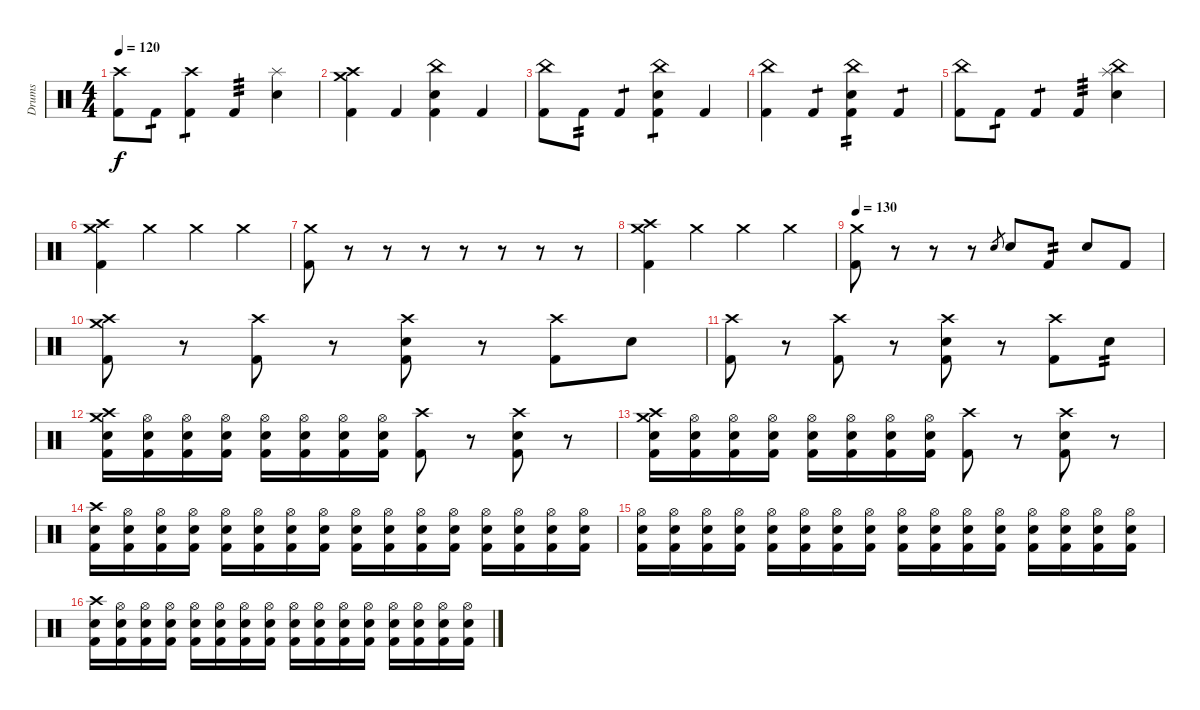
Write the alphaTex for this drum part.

\track ("Drums" "Drums") {instrument percussion}
\staff {score}
\articulation defaults
\ts (4 4)
\tempo 120
\clef neutral
\ks c
("Crash high (hit)" "Kick (hit) 2").8{dy f} "Kick (hit) 2".8{tp 1} ("Crash high (hit)" "Kick (hit) 2").4{tp 1} "Kick (hit) 2".4{tp 3} ("Splash (hit)" "Electric Snare (hit)").4 |
("Crash medium (hit)" "Crash high (hit)" "Kick (hit) 2").4 "Kick (hit) 2".4 ("China (hit)" "Electric Snare (hit)" "Kick (hit) 2").4 "Kick (hit) 2".4 |
("China (hit)" "Kick (hit) 2").8 "Kick (hit) 2".8{tp 2} "Kick (hit) 2".4{tp 1} ("China (hit)" "Electric Snare (hit)" "Kick (hit) 2").4{tp 1} "Kick (hit) 2".4 |
("China (hit)" "Kick (hit) 2").4 "Kick (hit) 2".4{tp 1} ("China (hit)" "Electric Snare (hit)" "Kick (hit) 2").4{tp 2} "Kick (hit) 2".4{tp 1} |
("China (hit)" "Kick (hit) 2").8 "Kick (hit) 2".8{tp 1} "Kick (hit) 2".4{tp 1} "Kick (hit) 2".4{tp 3} ("Splash (hit)" "China (hit)" "Electric Snare (hit)").4 |
("Crash medium (hit)" "Crash high (hit)" "Kick (hit) 2").4 "Crash medium (hit)".4 "Crash medium (hit)".4 "Crash medium (hit)".4 |
("Crash medium (hit)" "Kick (hit) 2").8 r.8{volume 0} r.8 r.8 r.8 r.8 r.8 r.8 |
("Crash medium (hit)" "Crash high (hit)" "Kick (hit) 2").4{volume 13} "Crash medium (hit)".4 "Crash medium (hit)".4 "Crash medium (hit)".4 |
\tempo 130
("Crash medium (hit)" "Kick (hit) 2").8 r.8{volume 0} r.8 r.8 "Electric Snare (hit)".8{gr} "Electric Snare (hit)".8{volume 13} "Kick (hit) 2".8{tp 2} "Electric Snare (hit)".8 "Kick (hit) 2".8 |
("Crash medium (hit)" "Crash high (hit)" "Kick (hit) 2").8 r.8 ("Crash high (hit)" "Kick (hit) 2").8 r.8 ("Crash high (hit)" "Electric Snare (hit)" "Kick (hit) 2").8 r.8 ("Crash high (hit)" "Kick (hit) 2").8 "Electric Snare (hit)".8 |
("Crash high (hit)" "Kick (hit) 2").8 r.8 ("Crash high (hit)" "Kick (hit) 2").8 r.8 ("Crash high (hit)" "Electric Snare (hit)" "Kick (hit) 2").8 r.8 ("Crash high (hit)" "Kick (hit) 2").8 "Electric Snare (hit)".8{tp 2} |
("Crash medium (hit)" "Crash high (hit)" "Electric Snare (hit)" "Kick (hit) 2").16 ("Hi-Hat (open)" "Electric Snare (hit)" "Kick (hit) 2").16 ("Hi-Hat (open)" "Electric Snare (hit)" "Kick (hit) 2").16 ("Hi-Hat (open)" "Electric Snare (hit)" "Kick (hit) 2").16 ("Hi-Hat (open)" "Electric Snare (hit)" "Kick (hit) 2").16 ("Hi-Hat (open)" "Electric Snare (hit)" "Kick (hit) 2").16 ("Hi-Hat (open)" "Electric Snare (hit)" "Kick (hit) 2").16 ("Hi-Hat (open)" "Electric Snare (hit)" "Kick (hit) 2").16 ("Crash high (hit)" "Kick (hit) 2").8 r.8 ("Crash high (hit)" "Electric Snare (hit)" "Kick (hit) 2").8 r.8 |
("Crash medium (hit)" "Crash high (hit)" "Electric Snare (hit)" "Kick (hit) 2").16 ("Hi-Hat (open)" "Electric Snare (hit)" "Kick (hit) 2").16 ("Hi-Hat (open)" "Electric Snare (hit)" "Kick (hit) 2").16 ("Hi-Hat (open)" "Electric Snare (hit)" "Kick (hit) 2").16 ("Hi-Hat (open)" "Electric Snare (hit)" "Kick (hit) 2").16 ("Hi-Hat (open)" "Electric Snare (hit)" "Kick (hit) 2").16 ("Hi-Hat (open)" "Electric Snare (hit)" "Kick (hit) 2").16 ("Hi-Hat (open)" "Electric Snare (hit)" "Kick (hit) 2").16 ("Crash high (hit)" "Kick (hit) 2").8 r.8 ("Crash high (hit)" "Electric Snare (hit)" "Kick (hit) 2").8 r.8 |
("Crash high (hit)" "Electric Snare (hit)" "Kick (hit) 2").16 ("Hi-Hat (open)" "Electric Snare (hit)" "Kick (hit) 2").16 ("Hi-Hat (open)" "Electric Snare (hit)" "Kick (hit) 2").16 ("Hi-Hat (open)" "Electric Snare (hit)" "Kick (hit) 2").16 ("Hi-Hat (open)" "Electric Snare (hit)" "Kick (hit) 2").16 ("Hi-Hat (open)" "Electric Snare (hit)" "Kick (hit) 2").16 ("Hi-Hat (open)" "Electric Snare (hit)" "Kick (hit) 2").16 ("Hi-Hat (open)" "Electric Snare (hit)" "Kick (hit) 2").16 ("Hi-Hat (open)" "Electric Snare (hit)" "Kick (hit) 2").16 ("Hi-Hat (open)" "Electric Snare (hit)" "Kick (hit) 2").16 ("Hi-Hat (open)" "Electric Snare (hit)" "Kick (hit) 2").16 ("Hi-Hat (open)" "Electric Snare (hit)" "Kick (hit) 2").16 ("Hi-Hat (open)" "Electric Snare (hit)" "Kick (hit) 2").16 ("Hi-Hat (open)" "Electric Snare (hit)" "Kick (hit) 2").16 ("Hi-Hat (open)" "Electric Snare (hit)" "Kick (hit) 2").16 ("Hi-Hat (open)" "Electric Snare (hit)" "Kick (hit) 2").16 |
("Hi-Hat (open)" "Electric Snare (hit)" "Kick (hit) 2").16 ("Hi-Hat (open)" "Electric Snare (hit)" "Kick (hit) 2").16 ("Hi-Hat (open)" "Electric Snare (hit)" "Kick (hit) 2").16 ("Hi-Hat (open)" "Electric Snare (hit)" "Kick (hit) 2").16 ("Hi-Hat (open)" "Electric Snare (hit)" "Kick (hit) 2").16 ("Hi-Hat (open)" "Electric Snare (hit)" "Kick (hit) 2").16 ("Hi-Hat (open)" "Electric Snare (hit)" "Kick (hit) 2").16 ("Hi-Hat (open)" "Electric Snare (hit)" "Kick (hit) 2").16 ("Hi-Hat (open)" "Electric Snare (hit)" "Kick (hit) 2").16 ("Hi-Hat (open)" "Electric Snare (hit)" "Kick (hit) 2").16 ("Hi-Hat (open)" "Electric Snare (hit)" "Kick (hit) 2").16 ("Hi-Hat (open)" "Electric Snare (hit)" "Kick (hit) 2").16 ("Hi-Hat (open)" "Electric Snare (hit)" "Kick (hit) 2").16 ("Hi-Hat (open)" "Electric Snare (hit)" "Kick (hit) 2").16 ("Hi-Hat (open)" "Electric Snare (hit)" "Kick (hit) 2").16 ("Hi-Hat (open)" "Electric Snare (hit)" "Kick (hit) 2").16 |
("Crash high (hit)" "Electric Snare (hit)" "Kick (hit) 2").16 ("Hi-Hat (open)" "Electric Snare (hit)" "Kick (hit) 2").16 ("Hi-Hat (open)" "Electric Snare (hit)" "Kick (hit) 2").16 ("Hi-Hat (open)" "Electric Snare (hit)" "Kick (hit) 2").16 ("Hi-Hat (open)" "Electric Snare (hit)" "Kick (hit) 2").16 ("Hi-Hat (open)" "Electric Snare (hit)" "Kick (hit) 2").16 ("Hi-Hat (open)" "Electric Snare (hit)" "Kick (hit) 2").16 ("Hi-Hat (open)" "Electric Snare (hit)" "Kick (hit) 2").16 ("Hi-Hat (open)" "Electric Snare (hit)" "Kick (hit) 2").16 ("Hi-Hat (open)" "Electric Snare (hit)" "Kick (hit) 2").16 ("Hi-Hat (open)" "Electric Snare (hit)" "Kick (hit) 2").16 ("Hi-Hat (open)" "Electric Snare (hit)" "Kick (hit) 2").16 ("Hi-Hat (open)" "Electric Snare (hit)" "Kick (hit) 2").16 ("Hi-Hat (open)" "Electric Snare (hit)" "Kick (hit) 2").16 ("Hi-Hat (open)" "Electric Snare (hit)" "Kick (hit) 2").16 ("Hi-Hat (open)" "Electric Snare (hit)" "Kick (hit) 2").16
